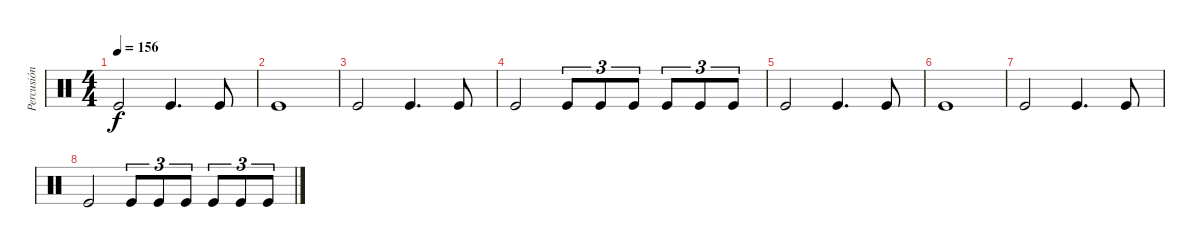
\track ("Percusión" "Percusión") {instrument percussion}
\staff {score}
\articulation defaults
\ts (4 4)
\tempo 156
\clef neutral
\ks c "Kick (hit)".2{dy f} "Kick (hit)".4{d} "Kick (hit)".8
|
"Kick (hit)".1 |
"Kick (hit)".2 "Kick (hit)".4{d} "Kick (hit)".8 |
"Kick (hit)".2 "Kick (hit)".8{tu (3 2)} "Kick (hit)".8{tu (3 2)} "Kick (hit)".8{tu (3 2)} "Kick (hit)".8{tu (3 2)} "Kick (hit)".8{tu (3 2)} "Kick (hit)".8{tu (3 2)} |
"Kick (hit)".2 "Kick (hit)".4{d} "Kick (hit)".8 |
"Kick (hit)".1 |
"Kick (hit)".2 "Kick (hit)".4{d} "Kick (hit)".8 |
"Kick (hit)".2 "Kick (hit)".8{tu (3 2)} "Kick (hit)".8{tu (3 2)} "Kick (hit)".8{tu (3 2)} "Kick (hit)".8{tu (3 2)} "Kick (hit)".8{tu (3 2)} "Kick (hit)".8{tu (3 2)}
